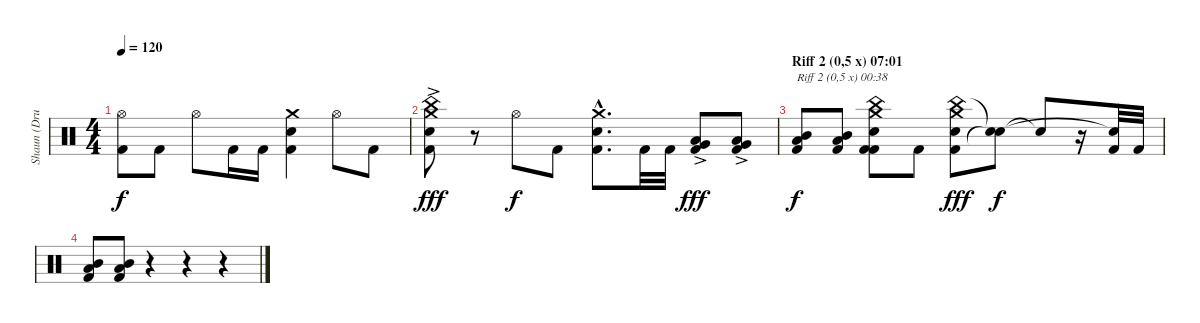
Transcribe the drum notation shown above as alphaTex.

\track ("Shaun (Drums Of DOOM)" "Shaun (Dru") {instrument percussion}
\staff {score}
\articulation defaults
\ts (4 4)
\tempo 120
\clef neutral
\ks c
("Kick (hit) 2" "Hi-Hat (open)").8{dy f} "Kick (hit) 2".8 "Hi-Hat (open)".8 "Kick (hit) 2".16 "Kick (hit) 2".16 ("Kick (hit) 2" "Electric Snare (hit)" "Crash medium (hit)").4 "Hi-Hat (open)".8 "Kick (hit) 2".8 |
("Kick (hit) 2" "Electric Snare (hit)" "China (hit)"{ac} "Crash medium (hit)"{ac}).8{dy fff} r.8 "Hi-Hat (open)".8{dy f} "Kick (hit) 2".8 ("Kick (hit) 2"{hac} "Electric Snare (hit)"{hac} "Crash medium (hit)"{hac}).8{d} "Kick (hit) 2".32 "Kick (hit) 2".32 ("Kick (hit) 2" "Low Floor Tom (hit)"{ac} "Very Low Tom (hit)"{ac}).8{dy fff} ("Kick (hit) 2" "Low Tom (hit)"{ac} "Very Low Tom (hit)"{ac}).8 |
\section ("" "Riff 2 (0,5 x) 07:01")
("Kick (hit) 2" "Low Tom (hit)" "Mid Tom (hit)").8{txt "Riff 2 (0,5 x) 00:38" dy f} ("Kick (hit) 2" "Low Tom (hit)" "Mid Tom (hit)").8 ("Kick (hit) 2" "Kick (hit) 2" "China (hit)" "Electric Snare (hit)" "Crash medium (hit)").8 "Kick (hit) 2".8 ("Kick (hit) 2" "China (hit)" "Electric Snare (hit)" "Crash medium (hit)").8{dy fff} ("Snare (hit)"{t} "Snare (hit)"{t}).8{dy f} "Snare (hit)"{t}.8 r.16 ("Kick (hit) 2" "Snare (hit)"{t}).32 "Kick (hit) 2".32 |
("Kick (hit) 2" "Low Tom (hit)" "Mid Tom (hit)").8 ("Kick (hit) 2" "Low Tom (hit)" "Mid Tom (hit)").8 r.4 r.4 r.4
